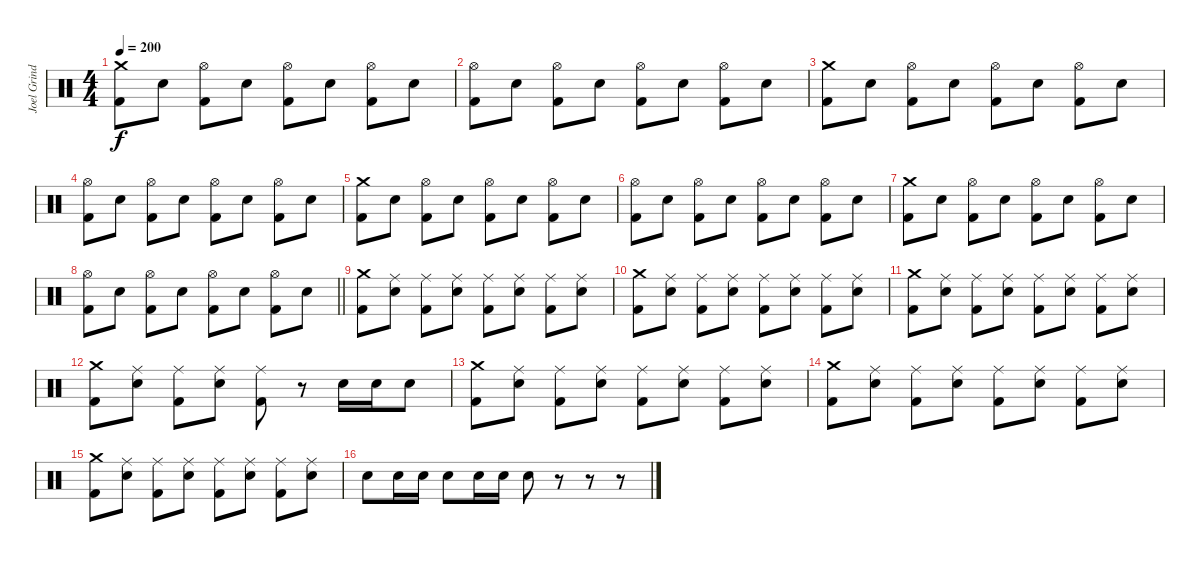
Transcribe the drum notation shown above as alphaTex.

\track ("Joel Grind (drums)" "Joel Grind") {instrument percussion}
\staff {score}
\articulation defaults
\ts (4 4)
\tempo 200
\clef neutral
\ks c
("Crash medium (hit)" "Kick (hit) 2").8{dy f} "Snare (hit) 2".8 ("Hi-Hat (open)" "Kick (hit) 2").8 "Snare (hit) 2".8 ("Hi-Hat (open)" "Kick (hit) 2").8 "Snare (hit) 2".8 ("Hi-Hat (open)" "Kick (hit) 2").8 "Snare (hit) 2".8 |
("Hi-Hat (open)" "Kick (hit) 2").8 "Snare (hit) 2".8 ("Hi-Hat (open)" "Kick (hit) 2").8 "Snare (hit) 2".8 ("Hi-Hat (open)" "Kick (hit) 2").8 "Snare (hit) 2".8 ("Hi-Hat (open)" "Kick (hit) 2").8 "Snare (hit) 2".8 |
("Crash medium (hit)" "Kick (hit) 2").8 "Snare (hit) 2".8 ("Hi-Hat (open)" "Kick (hit) 2").8 "Snare (hit) 2".8 ("Hi-Hat (open)" "Kick (hit) 2").8 "Snare (hit) 2".8 ("Hi-Hat (open)" "Kick (hit) 2").8 "Snare (hit) 2".8 |
("Hi-Hat (open)" "Kick (hit) 2").8 "Snare (hit) 2".8 ("Hi-Hat (open)" "Kick (hit) 2").8 "Snare (hit) 2".8 ("Hi-Hat (open)" "Kick (hit) 2").8 "Snare (hit) 2".8 ("Hi-Hat (open)" "Kick (hit) 2").8 "Snare (hit) 2".8 |
("Crash medium (hit)" "Kick (hit) 2").8 "Snare (hit) 2".8 ("Hi-Hat (open)" "Kick (hit) 2").8 "Snare (hit) 2".8 ("Hi-Hat (open)" "Kick (hit) 2").8 "Snare (hit) 2".8 ("Hi-Hat (open)" "Kick (hit) 2").8 "Snare (hit) 2".8 |
("Hi-Hat (open)" "Kick (hit) 2").8 "Snare (hit) 2".8 ("Hi-Hat (open)" "Kick (hit) 2").8 "Snare (hit) 2".8 ("Hi-Hat (open)" "Kick (hit) 2").8 "Snare (hit) 2".8 ("Hi-Hat (open)" "Kick (hit) 2").8 "Snare (hit) 2".8 |
("Crash medium (hit)" "Kick (hit) 2").8 "Snare (hit) 2".8 ("Hi-Hat (open)" "Kick (hit) 2").8 "Snare (hit) 2".8 ("Hi-Hat (open)" "Kick (hit) 2").8 "Snare (hit) 2".8 ("Hi-Hat (open)" "Kick (hit) 2").8 "Snare (hit) 2".8 |
\barLineRight lightlight
("Hi-Hat (open)" "Kick (hit) 2").8 "Snare (hit) 2".8 ("Hi-Hat (open)" "Kick (hit) 2").8 "Snare (hit) 2".8 ("Hi-Hat (open)" "Kick (hit) 2").8 "Snare (hit) 2".8 ("Hi-Hat (open)" "Kick (hit) 2").8 "Snare (hit) 2".8 |
("Crash medium (hit)" "Kick (hit) 2").8 ("Ride (middle)" "Snare (hit) 2").8 ("Ride (middle)" "Kick (hit) 2").8 ("Ride (middle)" "Snare (hit) 2").8 ("Ride (middle)" "Kick (hit) 2").8 ("Ride (middle)" "Snare (hit) 2").8 ("Ride (middle)" "Kick (hit) 2").8 ("Ride (middle)" "Snare (hit) 2").8 |
("Crash medium (hit)" "Kick (hit) 2").8 ("Ride (middle)" "Snare (hit) 2").8 ("Ride (middle)" "Kick (hit) 2").8 ("Ride (middle)" "Snare (hit) 2").8 ("Ride (middle)" "Kick (hit) 2").8 ("Ride (middle)" "Snare (hit) 2").8 ("Ride (middle)" "Kick (hit) 2").8 ("Ride (middle)" "Snare (hit) 2").8 |
("Crash medium (hit)" "Kick (hit) 2").8 ("Ride (middle)" "Snare (hit) 2").8 ("Ride (middle)" "Kick (hit) 2").8 ("Ride (middle)" "Snare (hit) 2").8 ("Ride (middle)" "Kick (hit) 2").8 ("Ride (middle)" "Snare (hit) 2").8 ("Ride (middle)" "Kick (hit) 2").8 ("Ride (middle)" "Snare (hit) 2").8 |
("Crash medium (hit)" "Kick (hit) 2").8 ("Ride (middle)" "Snare (hit) 2").8 ("Ride (middle)" "Kick (hit) 2").8 ("Ride (middle)" "Snare (hit) 2").8 ("Ride (middle)" "Kick (hit) 2").8 r.8 "Snare (hit) 2".16 "Snare (hit) 2".16 "Snare (hit) 2".8 |
("Crash medium (hit)" "Kick (hit) 2").8 ("Ride (middle)" "Snare (hit) 2").8 ("Ride (middle)" "Kick (hit) 2").8 ("Ride (middle)" "Snare (hit) 2").8 ("Ride (middle)" "Kick (hit) 2").8 ("Ride (middle)" "Snare (hit) 2").8 ("Ride (middle)" "Kick (hit) 2").8 ("Ride (middle)" "Snare (hit) 2").8 |
("Crash medium (hit)" "Kick (hit) 2").8 ("Ride (middle)" "Snare (hit) 2").8 ("Ride (middle)" "Kick (hit) 2").8 ("Ride (middle)" "Snare (hit) 2").8 ("Ride (middle)" "Kick (hit) 2").8 ("Ride (middle)" "Snare (hit) 2").8 ("Ride (middle)" "Kick (hit) 2").8 ("Ride (middle)" "Snare (hit) 2").8 |
("Crash medium (hit)" "Kick (hit) 2").8 ("Ride (middle)" "Snare (hit) 2").8 ("Ride (middle)" "Kick (hit) 2").8 ("Ride (middle)" "Snare (hit) 2").8 ("Ride (middle)" "Kick (hit) 2").8 ("Ride (middle)" "Snare (hit) 2").8 ("Ride (middle)" "Kick (hit) 2").8 ("Ride (middle)" "Snare (hit) 2").8 |
"Snare (hit) 2".8 "Snare (hit) 2".16 "Snare (hit) 2".16 "Snare (hit) 2".8 "Snare (hit) 2".16 "Snare (hit) 2".16 "Snare (hit) 2".8 r.8 r.8 r.8
